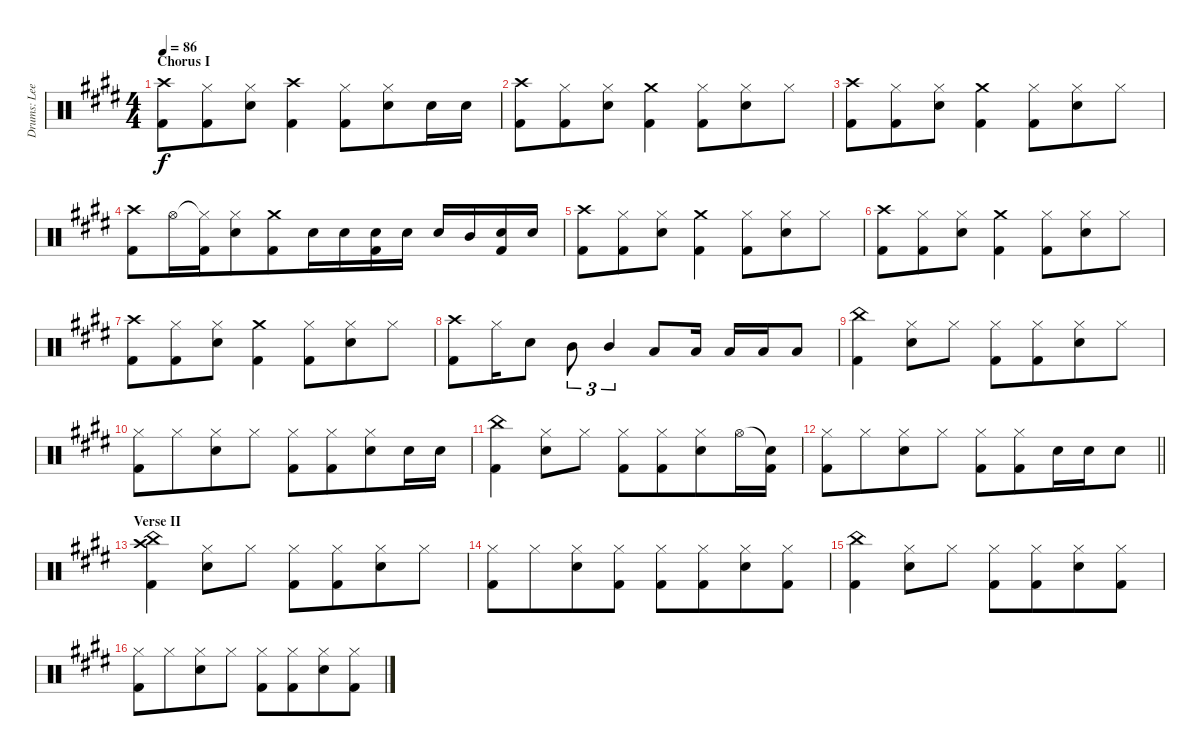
\track ("Drums: Lee" "Drums: Lee") {instrument percussion}
\staff {score}
\articulation defaults
\ts (4 4)
\section ("" "Chorus I")
\tempo 86
\clef neutral
\ks c#minor
("Crash high (hit)" "Kick (hit) 2").8{dy f} ("Hi-Hat (closed)" "Kick (hit) 2").8{beam merge} ("Hi-Hat (closed)" "Snare (hit) 2").8 ("Crash high (hit)" "Kick (hit) 2").4 ("Hi-Hat (closed)" "Kick (hit) 2").8{beam merge} ("Hi-Hat (closed)" "Snare (hit) 2").8 "Snare (hit) 2".16 "Snare (hit) 2".16 |
("Crash high (hit)" "Kick (hit) 2").8 ("Hi-Hat (closed)" "Kick (hit) 2").8{beam merge} ("Hi-Hat (closed)" "Snare (hit) 2").8 ("Crash medium (hit)" "Kick (hit) 2").4 ("Hi-Hat (closed)" "Kick (hit) 2").8{beam merge} ("Hi-Hat (closed)" "Snare (hit) 2").8 "Hi-Hat (closed)".8 |
("Crash high (hit)" "Kick (hit) 2").8 ("Hi-Hat (closed)" "Kick (hit) 2").8{beam merge} ("Hi-Hat (closed)" "Snare (hit) 2").8 ("Crash medium (hit)" "Kick (hit) 2").4 ("Hi-Hat (closed)" "Kick (hit) 2").8{beam merge} ("Hi-Hat (closed)" "Snare (hit) 2").8 "Hi-Hat (closed)".8 |
("Crash high (hit)" "Kick (hit) 2").8 "Hi-Hat (open)".16 ("Hi-Hat (closed)"{t} "Kick (hit) 2").16{beam merge} ("Hi-Hat (closed)" "Snare (hit) 2").8 ("Crash medium (hit)" "Kick (hit) 2").8{beam merge} "Snare (hit) 2".16 "Snare (hit) 2".16 ("Snare (hit) 2" "Kick (hit) 2").16 "Snare (hit) 2".16 "Snare (hit) 2".16 "Mid Tom (hit)".16 ("Snare (hit) 2" "Kick (hit) 2").16 "Snare (hit) 2".16 |
("Crash high (hit)" "Kick (hit) 2").8 ("Hi-Hat (closed)" "Kick (hit) 2").8{beam merge} ("Hi-Hat (closed)" "Snare (hit) 2").8 ("Crash medium (hit)" "Kick (hit) 2").4 ("Hi-Hat (closed)" "Kick (hit) 2").8{beam merge} ("Hi-Hat (closed)" "Snare (hit) 2").8 "Hi-Hat (closed)".8 |
("Crash high (hit)" "Kick (hit) 2").8 ("Hi-Hat (closed)" "Kick (hit) 2").8{beam merge} ("Hi-Hat (closed)" "Snare (hit) 2").8 ("Crash medium (hit)" "Kick (hit) 2").4 ("Hi-Hat (closed)" "Kick (hit) 2").8{beam merge} ("Hi-Hat (closed)" "Snare (hit) 2").8 "Hi-Hat (closed)".8 |
("Crash high (hit)" "Kick (hit) 2").8 ("Hi-Hat (closed)" "Kick (hit) 2").8{beam merge} ("Hi-Hat (closed)" "Snare (hit) 2").8 ("Crash medium (hit)" "Kick (hit) 2").4 ("Hi-Hat (closed)" "Kick (hit) 2").8{beam merge} ("Hi-Hat (closed)" "Snare (hit) 2").8 "Hi-Hat (closed)".8 |
("Crash high (hit)" "Kick (hit) 2").8 "Hi-Hat (closed)".16{beam merge} "Snare (hit) 2".8 "Mid Tom (hit)".8{tu (3 2)} "Mid Tom (hit)".4{tu (3 2) beam merge} "Low Tom (hit)".8 "Low Tom (hit)".16 "Low Tom (hit)".16 "Low Tom (hit)".16 "Low Tom (hit)".8 |
("China (hit)" "Kick (hit) 2").4 ("Hi-Hat (closed)" "Snare (hit) 2").8 "Hi-Hat (closed)".8 ("Hi-Hat (closed)" "Kick (hit) 2").8 ("Hi-Hat (closed)" "Kick (hit) 2").8{beam merge} ("Hi-Hat (closed)" "Snare (hit) 2").8 "Hi-Hat (closed)".8 |
("Hi-Hat (closed)" "Kick (hit) 2").8 "Hi-Hat (closed)".8{beam merge} ("Hi-Hat (closed)" "Snare (hit) 2").8 "Hi-Hat (closed)".8 ("Hi-Hat (closed)" "Kick (hit) 2").8 ("Hi-Hat (closed)" "Kick (hit) 2").8{beam merge} ("Hi-Hat (closed)" "Snare (hit) 2").8 "Snare (hit) 2".16 "Snare (hit) 2".16 |
("China (hit)" "Kick (hit) 2").4 ("Hi-Hat (closed)" "Snare (hit) 2").8 "Hi-Hat (closed)".8 ("Hi-Hat (closed)" "Kick (hit) 2").8 ("Hi-Hat (closed)" "Kick (hit) 2").8{beam merge} ("Hi-Hat (closed)" "Snare (hit) 2").8 "Hi-Hat (open)".16 ("Snare (hit)"{t} "Kick (hit) 2").16 |
\barLineRight lightlight
("Hi-Hat (closed)" "Kick (hit) 2").8 "Hi-Hat (closed)".8{beam merge} ("Hi-Hat (closed)" "Snare (hit) 2").8 "Hi-Hat (closed)".8 ("Hi-Hat (closed)" "Kick (hit) 2").8 ("Hi-Hat (closed)" "Kick (hit) 2").8{beam merge} "Snare (hit) 2".16 "Snare (hit) 2".16 "Snare (hit) 2".8 |
\section ("" "Verse II")
("Crash high (hit)" "China (hit)" "Kick (hit) 2").4 ("Hi-Hat (closed)" "Snare (hit) 2").8 "Hi-Hat (closed)".8 ("Hi-Hat (closed)" "Kick (hit) 2").8 ("Hi-Hat (closed)" "Kick (hit) 2").8{beam merge} ("Hi-Hat (closed)" "Snare (hit) 2").8 "Hi-Hat (closed)".8 |
("Hi-Hat (closed)" "Kick (hit) 2").8 "Hi-Hat (closed)".8{beam merge} ("Hi-Hat (closed)" "Snare (hit) 2").8 ("Hi-Hat (closed)" "Kick (hit) 2").8 ("Hi-Hat (closed)" "Kick (hit) 2").8 ("Hi-Hat (closed)" "Kick (hit) 2").8{beam merge} ("Hi-Hat (closed)" "Snare (hit) 2").8 ("Hi-Hat (closed)" "Kick (hit) 2").8 |
("China (hit)" "Kick (hit) 2").4 ("Hi-Hat (closed)" "Snare (hit) 2").8 "Hi-Hat (closed)".8 ("Hi-Hat (closed)" "Kick (hit) 2").8 ("Hi-Hat (closed)" "Kick (hit) 2").8{beam merge} ("Hi-Hat (closed)" "Snare (hit) 2").8 ("Hi-Hat (closed)" "Kick (hit) 2").8 |
("Hi-Hat (closed)" "Kick (hit) 2").8 "Hi-Hat (closed)".8{beam merge} ("Hi-Hat (closed)" "Snare (hit) 2").8 "Hi-Hat (closed)".8 ("Hi-Hat (closed)" "Kick (hit) 2").8 ("Hi-Hat (closed)" "Kick (hit) 2").8{beam merge} ("Hi-Hat (closed)" "Snare (hit) 2").8 ("Hi-Hat (closed)" "Kick (hit) 2").8
